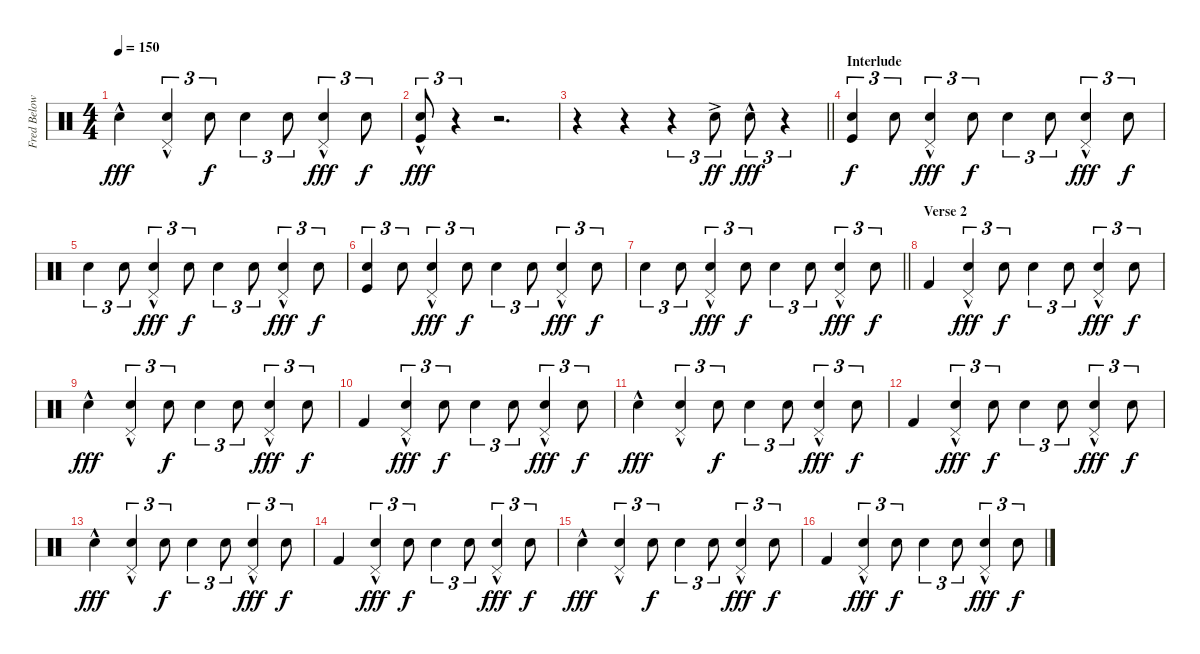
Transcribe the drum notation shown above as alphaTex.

\track ("Fred Below" "Fred Below") {instrument percussion}
\staff {score}
\articulation defaults
\ts (4 4)
\tempo 150
\clef neutral
\ks c "Snare (hit) 2"{hac}.4{dy fff}
("Snare (hit) 2"{hac} "Pedal Hi-Hat (hit)").4{tu (3 2)} "Snare (hit) 2".8{tu (3 2) dy f} "Electric Snare (hit)".4{tu (3 2)} "Snare (hit) 2".8{tu (3 2)} ("Hand Clap (hit)"{hac} "Pedal Hi-Hat (hit)").4{tu (3 2) dy fff} "Snare (hit) 2".8{tu (3 2) dy f} |
("Hand Clap (hit)"{hac} "Kick (hit)").8{tu (3 2) dy fff} r.4{tu (3 2)} r.2{d} |
\barLineRight lightlight
r.4 r.4 r.4{tu (3 2)} "Snare (hit) 2"{ac}.8{tu (3 2) dy ff} "Hand Clap (hit)"{hac}.8{tu (3 2) dy fff} r.4{tu (3 2)} |
\section ("" "Interlude")
("Snare (hit) 2" "Kick (hit)").4{tu (3 2) dy f} "Snare (hit) 2".8{tu (3 2)} ("Snare (hit) 2"{hac} "Pedal Hi-Hat (hit)").4{tu (3 2) dy fff} "Snare (hit) 2".8{tu (3 2) dy f} "Snare (hit) 2".4{tu (3 2)} "Snare (hit) 2".8{tu (3 2)} ("Hand Clap (hit)"{hac} "Pedal Hi-Hat (hit)").4{tu (3 2) dy fff} "Snare (hit) 2".8{tu (3 2) dy f} |
"Snare (hit) 2".4{tu (3 2)} "Snare (hit) 2".8{tu (3 2)} ("Snare (hit) 2"{hac} "Pedal Hi-Hat (hit)").4{tu (3 2) dy fff} "Snare (hit) 2".8{tu (3 2) dy f} "Snare (hit) 2".4{tu (3 2)} "Snare (hit) 2".8{tu (3 2)} ("Hand Clap (hit)"{hac} "Pedal Hi-Hat (hit)").4{tu (3 2) dy fff} "Snare (hit) 2".8{tu (3 2) dy f} |
("Snare (hit) 2" "Kick (hit)").4{tu (3 2)} "Snare (hit) 2".8{tu (3 2)} ("Snare (hit) 2"{hac} "Pedal Hi-Hat (hit)").4{tu (3 2) dy fff} "Snare (hit) 2".8{tu (3 2) dy f} "Snare (hit) 2".4{tu (3 2)} "Snare (hit) 2".8{tu (3 2)} ("Hand Clap (hit)"{hac} "Pedal Hi-Hat (hit)").4{tu (3 2) dy fff} "Snare (hit) 2".8{tu (3 2) dy f} |
\barLineRight lightlight "Snare (hit) 2".4{tu (3 2)} "Snare (hit) 2".8{tu (3 2)}
("Snare (hit) 2"{hac} "Pedal Hi-Hat (hit)").4{tu (3 2) dy fff} "Snare (hit) 2".8{tu (3 2) dy f} "Snare (hit) 2".4{tu (3 2)} "Snare (hit) 2".8{tu (3 2)} ("Hand Clap (hit)"{hac} "Pedal Hi-Hat (hit)").4{tu (3 2) dy fff} "Snare (hit) 2".8{tu (3 2) dy f} |
\section ("" "Verse 2")
"Kick (hit) 2".4 ("Snare (hit) 2"{hac} "Pedal Hi-Hat (hit)").4{tu (3 2) dy fff} "Snare (hit) 2".8{tu (3 2) dy f} "Electric Snare (hit)".4{tu (3 2)} "Snare (hit) 2".8{tu (3 2)} ("Hand Clap (hit)"{hac} "Pedal Hi-Hat (hit)").4{tu (3 2) dy fff} "Snare (hit) 2".8{tu (3 2) dy f} |
"Snare (hit) 2"{hac}.4{dy fff} ("Snare (hit) 2"{hac} "Pedal Hi-Hat (hit)").4{tu (3 2)} "Snare (hit) 2".8{tu (3 2) dy f} "Electric Snare (hit)".4{tu (3 2)} "Snare (hit) 2".8{tu (3 2)} ("Hand Clap (hit)"{hac} "Pedal Hi-Hat (hit)").4{tu (3 2) dy fff} "Snare (hit) 2".8{tu (3 2) dy f} |
"Kick (hit) 2".4 ("Snare (hit) 2"{hac} "Pedal Hi-Hat (hit)").4{tu (3 2) dy fff} "Snare (hit) 2".8{tu (3 2) dy f} "Electric Snare (hit)".4{tu (3 2)} "Snare (hit) 2".8{tu (3 2)} ("Hand Clap (hit)"{hac} "Pedal Hi-Hat (hit)").4{tu (3 2) dy fff} "Snare (hit) 2".8{tu (3 2) dy f} |
"Snare (hit) 2"{hac}.4{dy fff} ("Snare (hit) 2"{hac} "Pedal Hi-Hat (hit)").4{tu (3 2)} "Snare (hit) 2".8{tu (3 2) dy f} "Electric Snare (hit)".4{tu (3 2)} "Snare (hit) 2".8{tu (3 2)} ("Hand Clap (hit)"{hac} "Pedal Hi-Hat (hit)").4{tu (3 2) dy fff} "Snare (hit) 2".8{tu (3 2) dy f} |
"Kick (hit) 2".4 ("Snare (hit) 2"{hac} "Pedal Hi-Hat (hit)").4{tu (3 2) dy fff} "Snare (hit) 2".8{tu (3 2) dy f} "Electric Snare (hit)".4{tu (3 2)} "Snare (hit) 2".8{tu (3 2)} ("Hand Clap (hit)"{hac} "Pedal Hi-Hat (hit)").4{tu (3 2) dy fff} "Snare (hit) 2".8{tu (3 2) dy f} |
"Snare (hit) 2"{hac}.4{dy fff} ("Snare (hit) 2"{hac} "Pedal Hi-Hat (hit)").4{tu (3 2)} "Snare (hit) 2".8{tu (3 2) dy f} "Electric Snare (hit)".4{tu (3 2)} "Snare (hit) 2".8{tu (3 2)} ("Hand Clap (hit)"{hac} "Pedal Hi-Hat (hit)").4{tu (3 2) dy fff} "Snare (hit) 2".8{tu (3 2) dy f} |
"Kick (hit) 2".4 ("Snare (hit) 2"{hac} "Pedal Hi-Hat (hit)").4{tu (3 2) dy fff} "Snare (hit) 2".8{tu (3 2) dy f} "Electric Snare (hit)".4{tu (3 2)} "Snare (hit) 2".8{tu (3 2)} ("Hand Clap (hit)"{hac} "Pedal Hi-Hat (hit)").4{tu (3 2) dy fff} "Snare (hit) 2".8{tu (3 2) dy f} |
"Snare (hit) 2"{hac}.4{dy fff} ("Snare (hit) 2"{hac} "Pedal Hi-Hat (hit)").4{tu (3 2)} "Snare (hit) 2".8{tu (3 2) dy f} "Electric Snare (hit)".4{tu (3 2)} "Snare (hit) 2".8{tu (3 2)} ("Hand Clap (hit)"{hac} "Pedal Hi-Hat (hit)").4{tu (3 2) dy fff} "Snare (hit) 2".8{tu (3 2) dy f} |
"Kick (hit) 2".4 ("Snare (hit) 2"{hac} "Pedal Hi-Hat (hit)").4{tu (3 2) dy fff} "Snare (hit) 2".8{tu (3 2) dy f} "Electric Snare (hit)".4{tu (3 2)} "Snare (hit) 2".8{tu (3 2)} ("Hand Clap (hit)"{hac} "Pedal Hi-Hat (hit)").4{tu (3 2) dy fff} "Snare (hit) 2".8{tu (3 2) dy f}
